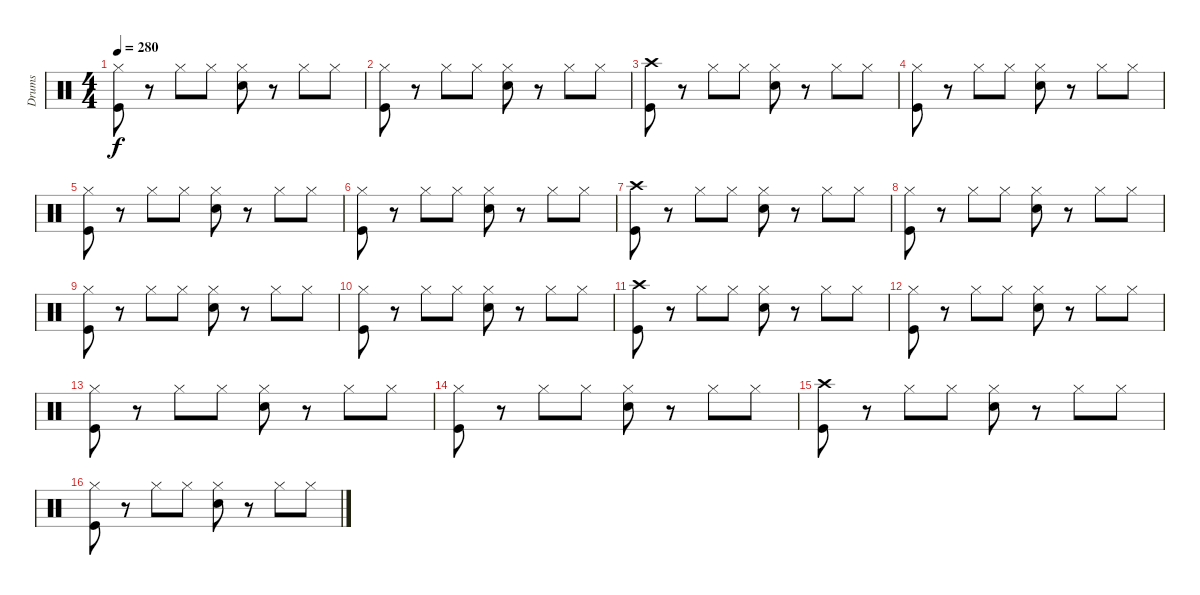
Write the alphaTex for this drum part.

\track ("Drums" "Drums") {instrument percussion}
\staff {score}
\articulation defaults
\ts (4 4)
\tempo 280
\clef neutral
\ks c
("Hi-Hat (closed)" "Kick (hit)").8{dy f} r.8 "Hi-Hat (closed)".8 "Hi-Hat (closed)".8 ("Hi-Hat (closed)" "Electric Snare (hit)").8 r.8 "Hi-Hat (closed)".8 "Hi-Hat (closed)".8 |
("Hi-Hat (closed)" "Kick (hit)").8 r.8 "Hi-Hat (closed)".8 "Hi-Hat (closed)".8 ("Hi-Hat (closed)" "Electric Snare (hit)").8 r.8 "Hi-Hat (closed)".8 "Hi-Hat (closed)".8 |
("Crash high (hit)" "Kick (hit)").8 r.8 "Hi-Hat (closed)".8 "Hi-Hat (closed)".8 ("Hi-Hat (closed)" "Electric Snare (hit)").8 r.8 "Hi-Hat (closed)".8 "Hi-Hat (closed)".8 |
("Hi-Hat (closed)" "Kick (hit)").8 r.8 "Hi-Hat (closed)".8 "Hi-Hat (closed)".8 ("Hi-Hat (closed)" "Electric Snare (hit)").8 r.8 "Hi-Hat (closed)".8 "Hi-Hat (closed)".8 |
("Hi-Hat (closed)" "Kick (hit)").8 r.8 "Hi-Hat (closed)".8 "Hi-Hat (closed)".8 ("Hi-Hat (closed)" "Electric Snare (hit)").8 r.8 "Hi-Hat (closed)".8 "Hi-Hat (closed)".8 |
("Hi-Hat (closed)" "Kick (hit)").8 r.8 "Hi-Hat (closed)".8 "Hi-Hat (closed)".8 ("Hi-Hat (closed)" "Electric Snare (hit)").8 r.8 "Hi-Hat (closed)".8 "Hi-Hat (closed)".8 |
("Crash high (hit)" "Kick (hit)").8 r.8 "Hi-Hat (closed)".8 "Hi-Hat (closed)".8 ("Hi-Hat (closed)" "Electric Snare (hit)").8 r.8 "Hi-Hat (closed)".8 "Hi-Hat (closed)".8 |
("Hi-Hat (closed)" "Kick (hit)").8 r.8 "Hi-Hat (closed)".8 "Hi-Hat (closed)".8 ("Hi-Hat (closed)" "Electric Snare (hit)").8 r.8 "Hi-Hat (closed)".8 "Hi-Hat (closed)".8 |
("Hi-Hat (closed)" "Kick (hit)").8 r.8 "Hi-Hat (closed)".8 "Hi-Hat (closed)".8 ("Hi-Hat (closed)" "Electric Snare (hit)").8 r.8 "Hi-Hat (closed)".8 "Hi-Hat (closed)".8 |
("Hi-Hat (closed)" "Kick (hit)").8 r.8 "Hi-Hat (closed)".8 "Hi-Hat (closed)".8 ("Hi-Hat (closed)" "Electric Snare (hit)").8 r.8 "Hi-Hat (closed)".8 "Hi-Hat (closed)".8 |
("Crash high (hit)" "Kick (hit)").8 r.8 "Hi-Hat (closed)".8 "Hi-Hat (closed)".8 ("Hi-Hat (closed)" "Electric Snare (hit)").8 r.8 "Hi-Hat (closed)".8 "Hi-Hat (closed)".8 |
("Hi-Hat (closed)" "Kick (hit)").8 r.8 "Hi-Hat (closed)".8 "Hi-Hat (closed)".8 ("Hi-Hat (closed)" "Electric Snare (hit)").8 r.8 "Hi-Hat (closed)".8 "Hi-Hat (closed)".8 |
("Hi-Hat (closed)" "Kick (hit)").8 r.8 "Hi-Hat (closed)".8 "Hi-Hat (closed)".8 ("Hi-Hat (closed)" "Electric Snare (hit)").8 r.8 "Hi-Hat (closed)".8 "Hi-Hat (closed)".8 |
("Hi-Hat (closed)" "Kick (hit)").8 r.8 "Hi-Hat (closed)".8 "Hi-Hat (closed)".8 ("Hi-Hat (closed)" "Electric Snare (hit)").8 r.8 "Hi-Hat (closed)".8 "Hi-Hat (closed)".8 |
("Crash high (hit)" "Kick (hit)").8 r.8 "Hi-Hat (closed)".8 "Hi-Hat (closed)".8 ("Hi-Hat (closed)" "Electric Snare (hit)").8 r.8 "Hi-Hat (closed)".8 "Hi-Hat (closed)".8 |
("Hi-Hat (closed)" "Kick (hit)").8 r.8 "Hi-Hat (closed)".8 "Hi-Hat (closed)".8 ("Hi-Hat (closed)" "Electric Snare (hit)").8 r.8 "Hi-Hat (closed)".8 "Hi-Hat (closed)".8
